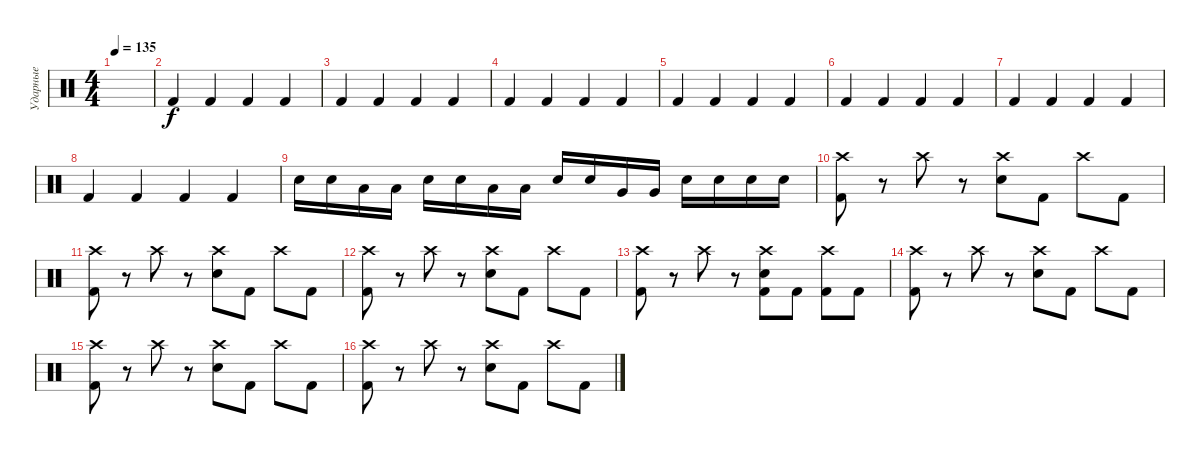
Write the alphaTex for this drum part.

\track ("Ударные" "Ударные") {instrument percussion}
\staff {score}
\articulation defaults
\ts (4 4)
\tempo 135
\clef neutral
\ks c
|
"Kick (hit) 2".4 "Kick (hit) 2".4 "Kick (hit) 2".4 "Kick (hit) 2".4 |
"Kick (hit) 2".4 "Kick (hit) 2".4 "Kick (hit) 2".4 "Kick (hit) 2".4 |
"Kick (hit) 2".4 "Kick (hit) 2".4 "Kick (hit) 2".4 "Kick (hit) 2".4 |
"Kick (hit) 2".4 "Kick (hit) 2".4 "Kick (hit) 2".4 "Kick (hit) 2".4 |
"Kick (hit) 2".4 "Kick (hit) 2".4 "Kick (hit) 2".4 "Kick (hit) 2".4 |
"Kick (hit) 2".4 "Kick (hit) 2".4 "Kick (hit) 2".4 "Kick (hit) 2".4 |
"Kick (hit) 2".4 "Kick (hit) 2".4 "Kick (hit) 2".4 "Kick (hit) 2".4 |
"Electric Snare (hit)".16 "Electric Snare (hit)".16 "Low Tom (hit)".16 "Low Tom (hit)".16 "Electric Snare (hit)".16 "Electric Snare (hit)".16 "Low Tom (hit)".16 "Low Tom (hit)".16 "Electric Snare (hit)".16 "Electric Snare (hit)".16 "Very Low Tom (hit)".16 "Very Low Tom (hit)".16 "Electric Snare (hit)".16 "Electric Snare (hit)".16 "Electric Snare (hit)".16 "Electric Snare (hit)".16 |
("Crash high (hit)" "Kick (hit) 2").8 r.8 "Crash high (hit)".8 r.8 ("Crash high (hit)" "Electric Snare (hit)").8 "Kick (hit) 2".8 "Crash high (hit)".8 "Kick (hit) 2".8 |
("Crash high (hit)" "Kick (hit) 2").8 r.8 "Crash high (hit)".8 r.8 ("Crash high (hit)" "Electric Snare (hit)").8 "Kick (hit) 2".8 "Crash high (hit)".8 "Kick (hit) 2".8 |
("Crash high (hit)" "Kick (hit) 2").8 r.8 "Crash high (hit)".8 r.8 ("Crash high (hit)" "Electric Snare (hit)").8 "Kick (hit) 2".8 "Crash high (hit)".8 "Kick (hit) 2".8 |
("Crash high (hit)" "Kick (hit) 2").8 r.8 "Crash high (hit)".8 r.8 ("Crash high (hit)" "Electric Snare (hit)" "Kick (hit) 2").8 "Kick (hit) 2".8 ("Crash high (hit)" "Kick (hit) 2").8 "Kick (hit) 2".8 |
("Crash high (hit)" "Kick (hit) 2").8 r.8 "Crash high (hit)".8 r.8 ("Crash high (hit)" "Electric Snare (hit)").8 "Kick (hit) 2".8 "Crash high (hit)".8 "Kick (hit) 2".8 |
("Crash high (hit)" "Kick (hit) 2").8 r.8 "Crash high (hit)".8 r.8 ("Crash high (hit)" "Electric Snare (hit)").8 "Kick (hit) 2".8 "Crash high (hit)".8 "Kick (hit) 2".8 |
("Crash high (hit)" "Kick (hit) 2").8 r.8 "Crash high (hit)".8 r.8 ("Crash high (hit)" "Electric Snare (hit)").8 "Kick (hit) 2".8 "Crash high (hit)".8 "Kick (hit) 2".8
